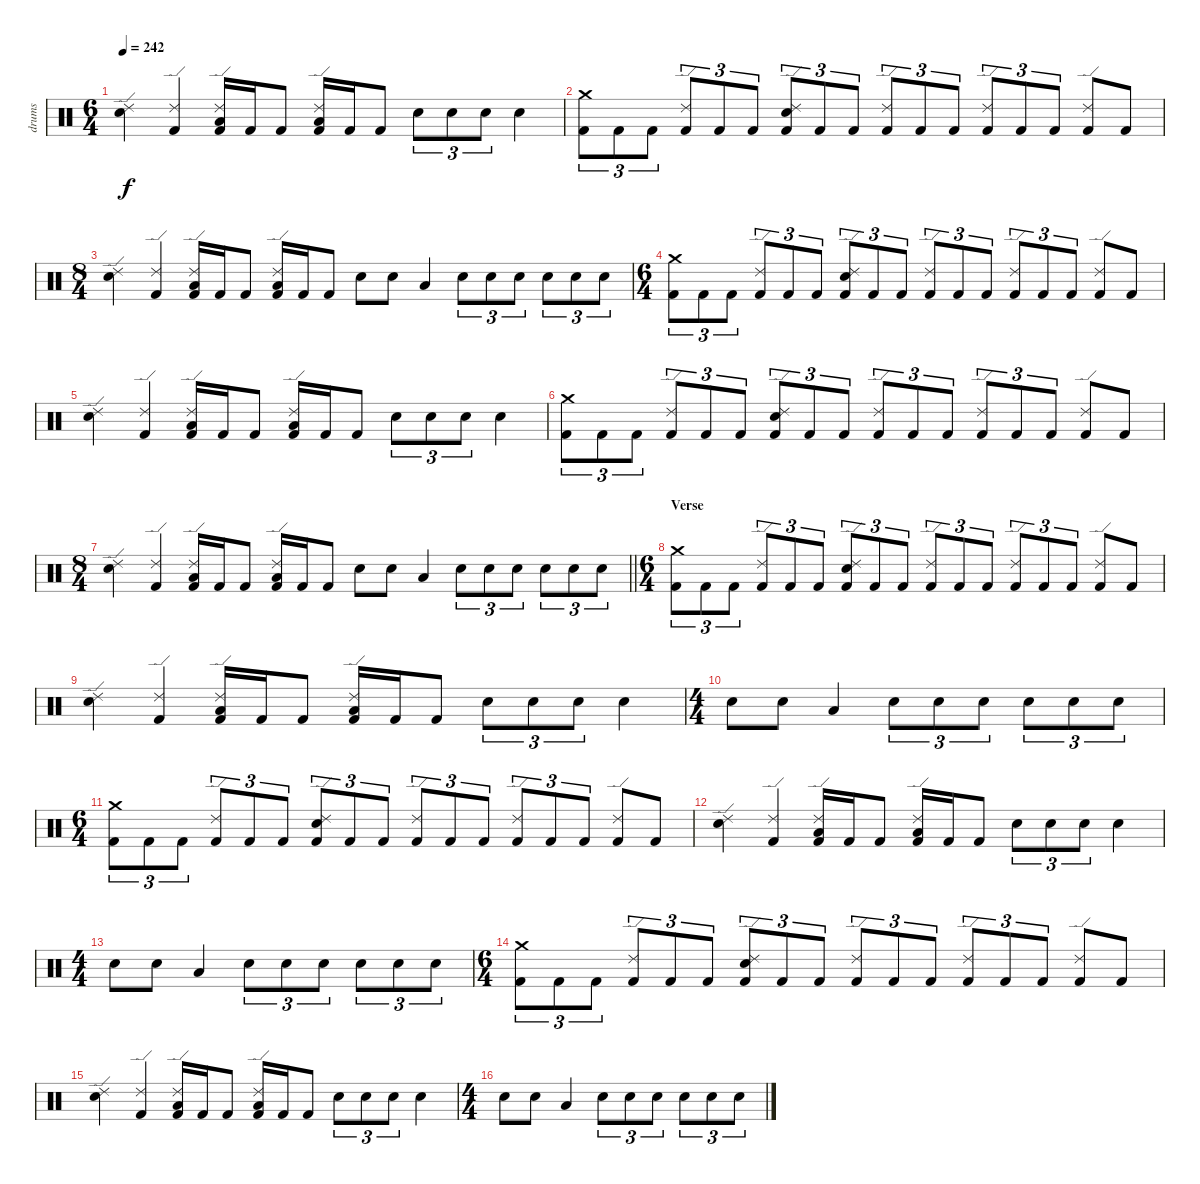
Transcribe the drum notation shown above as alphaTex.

\track ("drums" "drums") {instrument percussion}
\staff {score}
\articulation defaults
\ts (6 4)
\tempo 242
\clef neutral
\ks c
("Ride (edge) 2" "Electric Snare (hit)").4{dy f} ("Ride (edge) 2" "Kick (hit) 2").4 ("Ride (edge) 2" "Low Tom (hit)" "Kick (hit) 2").16 "Kick (hit) 2".16 "Kick (hit) 2".8 ("Ride (edge) 2" "Low Tom (hit)" "Kick (hit) 2").16 "Kick (hit) 2".16 "Kick (hit) 2".8 "Electric Snare (hit)".8{tu (3 2)} "Electric Snare (hit)".8{tu (3 2)} "Electric Snare (hit)".8{tu (3 2)} "Electric Snare (hit)".4 |
("Crash medium (hit)" "Kick (hit) 2").8{tu (3 2)} "Kick (hit) 2".8{tu (3 2)} "Kick (hit) 2".8{tu (3 2)} ("Ride (edge) 2" "Kick (hit) 2").8{tu (3 2)} "Kick (hit) 2".8{tu (3 2)} "Kick (hit) 2".8{tu (3 2)} ("Ride (edge) 2" "Electric Snare (hit)" "Kick (hit) 2").8{tu (3 2)} "Kick (hit) 2".8{tu (3 2)} "Kick (hit) 2".8{tu (3 2)} ("Ride (edge) 2" "Kick (hit) 2").8{tu (3 2)} "Kick (hit) 2".8{tu (3 2)} "Kick (hit) 2".8{tu (3 2)} ("Ride (edge) 2" "Kick (hit) 2").8{tu (3 2)} "Kick (hit) 2".8{tu (3 2)} "Kick (hit) 2".8{tu (3 2)} ("Ride (edge) 2" "Kick (hit) 2").8 "Kick (hit) 2".8 |
\ts (8 4)
("Ride (edge) 2" "Electric Snare (hit)").4 ("Ride (edge) 2" "Kick (hit) 2").4 ("Ride (edge) 2" "Low Tom (hit)" "Kick (hit) 2").16 "Kick (hit) 2".16 "Kick (hit) 2".8 ("Ride (edge) 2" "Low Tom (hit)" "Kick (hit) 2").16 "Kick (hit) 2".16 "Kick (hit) 2".8 "Electric Snare (hit)".8 "Electric Snare (hit)".8 "Low Tom (hit)".4 "Electric Snare (hit)".8{tu (3 2)} "Electric Snare (hit)".8{tu (3 2)} "Electric Snare (hit)".8{tu (3 2)} "Electric Snare (hit)".8{tu (3 2)} "Electric Snare (hit)".8{tu (3 2)} "Electric Snare (hit)".8{tu (3 2)} |
\ts (6 4)
("Crash medium (hit)" "Kick (hit) 2").8{tu (3 2)} "Kick (hit) 2".8{tu (3 2)} "Kick (hit) 2".8{tu (3 2)} ("Ride (edge) 2" "Kick (hit) 2").8{tu (3 2)} "Kick (hit) 2".8{tu (3 2)} "Kick (hit) 2".8{tu (3 2)} ("Ride (edge) 2" "Electric Snare (hit)" "Kick (hit) 2").8{tu (3 2)} "Kick (hit) 2".8{tu (3 2)} "Kick (hit) 2".8{tu (3 2)} ("Ride (edge) 2" "Kick (hit) 2").8{tu (3 2)} "Kick (hit) 2".8{tu (3 2)} "Kick (hit) 2".8{tu (3 2)} ("Ride (edge) 2" "Kick (hit) 2").8{tu (3 2)} "Kick (hit) 2".8{tu (3 2)} "Kick (hit) 2".8{tu (3 2)} ("Ride (edge) 2" "Kick (hit) 2").8 "Kick (hit) 2".8 |
("Ride (edge) 2" "Electric Snare (hit)").4 ("Ride (edge) 2" "Kick (hit) 2").4 ("Ride (edge) 2" "Low Tom (hit)" "Kick (hit) 2").16 "Kick (hit) 2".16 "Kick (hit) 2".8 ("Ride (edge) 2" "Low Tom (hit)" "Kick (hit) 2").16 "Kick (hit) 2".16 "Kick (hit) 2".8 "Electric Snare (hit)".8{tu (3 2)} "Electric Snare (hit)".8{tu (3 2)} "Electric Snare (hit)".8{tu (3 2)} "Electric Snare (hit)".4 |
("Crash medium (hit)" "Kick (hit) 2").8{tu (3 2)} "Kick (hit) 2".8{tu (3 2)} "Kick (hit) 2".8{tu (3 2)} ("Ride (edge) 2" "Kick (hit) 2").8{tu (3 2)} "Kick (hit) 2".8{tu (3 2)} "Kick (hit) 2".8{tu (3 2)} ("Ride (edge) 2" "Electric Snare (hit)" "Kick (hit) 2").8{tu (3 2)} "Kick (hit) 2".8{tu (3 2)} "Kick (hit) 2".8{tu (3 2)} ("Ride (edge) 2" "Kick (hit) 2").8{tu (3 2)} "Kick (hit) 2".8{tu (3 2)} "Kick (hit) 2".8{tu (3 2)} ("Ride (edge) 2" "Kick (hit) 2").8{tu (3 2)} "Kick (hit) 2".8{tu (3 2)} "Kick (hit) 2".8{tu (3 2)} ("Ride (edge) 2" "Kick (hit) 2").8 "Kick (hit) 2".8 |
\ts (8 4)
\barLineRight lightlight
("Ride (edge) 2" "Electric Snare (hit)").4 ("Ride (edge) 2" "Kick (hit) 2").4 ("Ride (edge) 2" "Low Tom (hit)" "Kick (hit) 2").16 "Kick (hit) 2".16 "Kick (hit) 2".8 ("Ride (edge) 2" "Low Tom (hit)" "Kick (hit) 2").16 "Kick (hit) 2".16 "Kick (hit) 2".8 "Electric Snare (hit)".8 "Electric Snare (hit)".8 "Low Tom (hit)".4 "Electric Snare (hit)".8{tu (3 2)} "Electric Snare (hit)".8{tu (3 2)} "Electric Snare (hit)".8{tu (3 2)} "Electric Snare (hit)".8{tu (3 2)} "Electric Snare (hit)".8{tu (3 2)} "Electric Snare (hit)".8{tu (3 2)} |
\ts (6 4)
\section ("" "Verse")
("Crash medium (hit)" "Kick (hit) 2").8{tu (3 2)} "Kick (hit) 2".8{tu (3 2)} "Kick (hit) 2".8{tu (3 2)} ("Ride (edge) 2" "Kick (hit) 2").8{tu (3 2)} "Kick (hit) 2".8{tu (3 2)} "Kick (hit) 2".8{tu (3 2)} ("Ride (edge) 2" "Electric Snare (hit)" "Kick (hit) 2").8{tu (3 2)} "Kick (hit) 2".8{tu (3 2)} "Kick (hit) 2".8{tu (3 2)} ("Ride (edge) 2" "Kick (hit) 2").8{tu (3 2)} "Kick (hit) 2".8{tu (3 2)} "Kick (hit) 2".8{tu (3 2)} ("Ride (edge) 2" "Kick (hit) 2").8{tu (3 2)} "Kick (hit) 2".8{tu (3 2)} "Kick (hit) 2".8{tu (3 2)} ("Ride (edge) 2" "Kick (hit) 2").8 "Kick (hit) 2".8 |
("Ride (edge) 2" "Electric Snare (hit)").4 ("Ride (edge) 2" "Kick (hit) 2").4 ("Ride (edge) 2" "Low Tom (hit)" "Kick (hit) 2").16 "Kick (hit) 2".16 "Kick (hit) 2".8 ("Ride (edge) 2" "Low Tom (hit)" "Kick (hit) 2").16 "Kick (hit) 2".16 "Kick (hit) 2".8 "Electric Snare (hit)".8{tu (3 2)} "Electric Snare (hit)".8{tu (3 2)} "Electric Snare (hit)".8{tu (3 2)} "Electric Snare (hit)".4 |
\ts (4 4)
"Electric Snare (hit)".8 "Electric Snare (hit)".8 "Low Tom (hit)".4 "Electric Snare (hit)".8{tu (3 2)} "Electric Snare (hit)".8{tu (3 2)} "Electric Snare (hit)".8{tu (3 2)} "Electric Snare (hit)".8{tu (3 2)} "Electric Snare (hit)".8{tu (3 2)} "Electric Snare (hit)".8{tu (3 2)} |
\ts (6 4)
("Crash medium (hit)" "Kick (hit) 2").8{tu (3 2)} "Kick (hit) 2".8{tu (3 2)} "Kick (hit) 2".8{tu (3 2)} ("Ride (edge) 2" "Kick (hit) 2").8{tu (3 2)} "Kick (hit) 2".8{tu (3 2)} "Kick (hit) 2".8{tu (3 2)} ("Ride (edge) 2" "Electric Snare (hit)" "Kick (hit) 2").8{tu (3 2)} "Kick (hit) 2".8{tu (3 2)} "Kick (hit) 2".8{tu (3 2)} ("Ride (edge) 2" "Kick (hit) 2").8{tu (3 2)} "Kick (hit) 2".8{tu (3 2)} "Kick (hit) 2".8{tu (3 2)} ("Ride (edge) 2" "Kick (hit) 2").8{tu (3 2)} "Kick (hit) 2".8{tu (3 2)} "Kick (hit) 2".8{tu (3 2)} ("Ride (edge) 2" "Kick (hit) 2").8 "Kick (hit) 2".8 |
("Ride (edge) 2" "Electric Snare (hit)").4 ("Ride (edge) 2" "Kick (hit) 2").4 ("Ride (edge) 2" "Low Tom (hit)" "Kick (hit) 2").16 "Kick (hit) 2".16 "Kick (hit) 2".8 ("Ride (edge) 2" "Low Tom (hit)" "Kick (hit) 2").16 "Kick (hit) 2".16 "Kick (hit) 2".8 "Electric Snare (hit)".8{tu (3 2)} "Electric Snare (hit)".8{tu (3 2)} "Electric Snare (hit)".8{tu (3 2)} "Electric Snare (hit)".4 |
\ts (4 4)
"Electric Snare (hit)".8 "Electric Snare (hit)".8 "Low Tom (hit)".4 "Electric Snare (hit)".8{tu (3 2)} "Electric Snare (hit)".8{tu (3 2)} "Electric Snare (hit)".8{tu (3 2)} "Electric Snare (hit)".8{tu (3 2)} "Electric Snare (hit)".8{tu (3 2)} "Electric Snare (hit)".8{tu (3 2)} |
\ts (6 4)
("Crash medium (hit)" "Kick (hit) 2").8{tu (3 2)} "Kick (hit) 2".8{tu (3 2)} "Kick (hit) 2".8{tu (3 2)} ("Ride (edge) 2" "Kick (hit) 2").8{tu (3 2)} "Kick (hit) 2".8{tu (3 2)} "Kick (hit) 2".8{tu (3 2)} ("Ride (edge) 2" "Electric Snare (hit)" "Kick (hit) 2").8{tu (3 2)} "Kick (hit) 2".8{tu (3 2)} "Kick (hit) 2".8{tu (3 2)} ("Ride (edge) 2" "Kick (hit) 2").8{tu (3 2)} "Kick (hit) 2".8{tu (3 2)} "Kick (hit) 2".8{tu (3 2)} ("Ride (edge) 2" "Kick (hit) 2").8{tu (3 2)} "Kick (hit) 2".8{tu (3 2)} "Kick (hit) 2".8{tu (3 2)} ("Ride (edge) 2" "Kick (hit) 2").8 "Kick (hit) 2".8 |
("Ride (edge) 2" "Electric Snare (hit)").4 ("Ride (edge) 2" "Kick (hit) 2").4 ("Ride (edge) 2" "Low Tom (hit)" "Kick (hit) 2").16 "Kick (hit) 2".16 "Kick (hit) 2".8 ("Ride (edge) 2" "Low Tom (hit)" "Kick (hit) 2").16 "Kick (hit) 2".16 "Kick (hit) 2".8 "Electric Snare (hit)".8{tu (3 2)} "Electric Snare (hit)".8{tu (3 2)} "Electric Snare (hit)".8{tu (3 2)} "Electric Snare (hit)".4 |
\ts (4 4)
"Electric Snare (hit)".8 "Electric Snare (hit)".8 "Low Tom (hit)".4 "Electric Snare (hit)".8{tu (3 2)} "Electric Snare (hit)".8{tu (3 2)} "Electric Snare (hit)".8{tu (3 2)} "Electric Snare (hit)".8{tu (3 2)} "Electric Snare (hit)".8{tu (3 2)} "Electric Snare (hit)".8{tu (3 2)}
